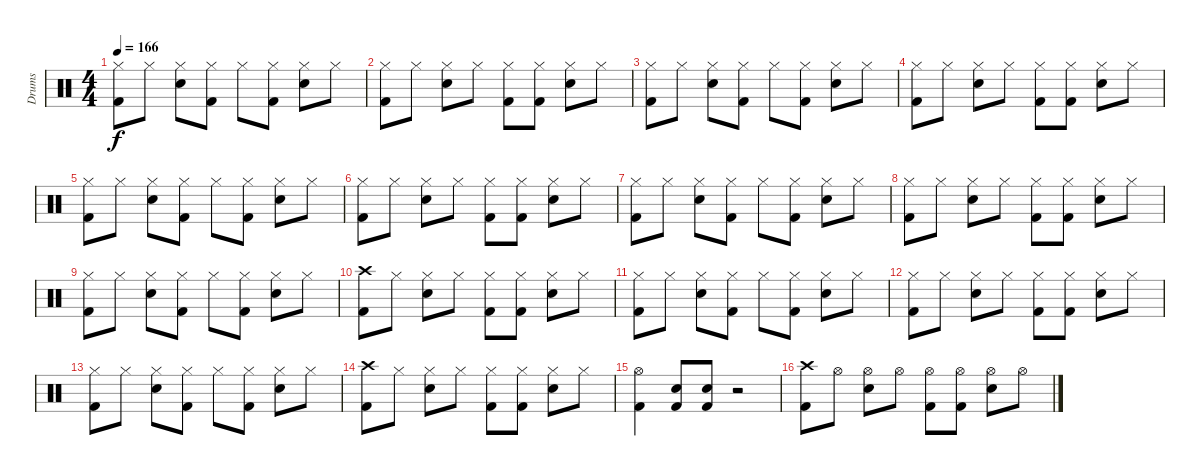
\track ("Drums" "Drums") {instrument percussion}
\staff {score}
\articulation defaults
\ts (4 4)
\tempo 166
\clef neutral
\ks c
("Hi-Hat (closed)" "Kick (hit) 2").8{dy f} "Hi-Hat (closed)".8 ("Hi-Hat (closed)" "Snare (hit) 2").8 ("Hi-Hat (closed)" "Kick (hit) 2").8 "Hi-Hat (closed)".8 ("Hi-Hat (closed)" "Kick (hit) 2").8 ("Hi-Hat (closed)" "Snare (hit) 2").8 "Hi-Hat (closed)".8 |
("Hi-Hat (closed)" "Kick (hit) 2").8 "Hi-Hat (closed)".8 ("Hi-Hat (closed)" "Snare (hit) 2").8 "Hi-Hat (closed)".8 ("Hi-Hat (closed)" "Kick (hit) 2").8 ("Hi-Hat (closed)" "Kick (hit) 2").8 ("Hi-Hat (closed)" "Snare (hit) 2").8 "Hi-Hat (closed)".8 |
("Hi-Hat (closed)" "Kick (hit) 2").8 "Hi-Hat (closed)".8 ("Hi-Hat (closed)" "Snare (hit) 2").8 ("Hi-Hat (closed)" "Kick (hit) 2").8 "Hi-Hat (closed)".8 ("Hi-Hat (closed)" "Kick (hit) 2").8 ("Hi-Hat (closed)" "Snare (hit) 2").8 "Hi-Hat (closed)".8 |
("Hi-Hat (closed)" "Kick (hit) 2").8 "Hi-Hat (closed)".8 ("Hi-Hat (closed)" "Snare (hit) 2").8 "Hi-Hat (closed)".8 ("Hi-Hat (closed)" "Kick (hit) 2").8 ("Hi-Hat (closed)" "Kick (hit) 2").8 ("Hi-Hat (closed)" "Snare (hit) 2").8 "Hi-Hat (closed)".8 |
("Hi-Hat (closed)" "Kick (hit) 2").8 "Hi-Hat (closed)".8 ("Hi-Hat (closed)" "Snare (hit) 2").8 ("Hi-Hat (closed)" "Kick (hit) 2").8 "Hi-Hat (closed)".8 ("Hi-Hat (closed)" "Kick (hit) 2").8 ("Hi-Hat (closed)" "Snare (hit) 2").8 "Hi-Hat (closed)".8 |
("Hi-Hat (closed)" "Kick (hit) 2").8 "Hi-Hat (closed)".8 ("Hi-Hat (closed)" "Snare (hit) 2").8 "Hi-Hat (closed)".8 ("Hi-Hat (closed)" "Kick (hit) 2").8 ("Hi-Hat (closed)" "Kick (hit) 2").8 ("Hi-Hat (closed)" "Snare (hit) 2").8 "Hi-Hat (closed)".8 |
("Hi-Hat (closed)" "Kick (hit) 2").8 "Hi-Hat (closed)".8 ("Hi-Hat (closed)" "Snare (hit) 2").8 ("Hi-Hat (closed)" "Kick (hit) 2").8 "Hi-Hat (closed)".8 ("Hi-Hat (closed)" "Kick (hit) 2").8 ("Hi-Hat (closed)" "Snare (hit) 2").8 "Hi-Hat (closed)".8 |
("Hi-Hat (closed)" "Kick (hit) 2").8 "Hi-Hat (closed)".8 ("Hi-Hat (closed)" "Snare (hit) 2").8 "Hi-Hat (closed)".8 ("Hi-Hat (closed)" "Kick (hit) 2").8 ("Hi-Hat (closed)" "Kick (hit) 2").8 ("Hi-Hat (closed)" "Snare (hit) 2").8 "Hi-Hat (closed)".8 |
("Hi-Hat (closed)" "Kick (hit) 2").8 "Hi-Hat (closed)".8 ("Hi-Hat (closed)" "Snare (hit) 2").8 ("Hi-Hat (closed)" "Kick (hit) 2").8 "Hi-Hat (closed)".8 ("Hi-Hat (closed)" "Kick (hit) 2").8 ("Hi-Hat (closed)" "Snare (hit) 2").8 "Hi-Hat (closed)".8 |
("Crash high (hit)" "Kick (hit) 2").8 "Hi-Hat (closed)".8 ("Hi-Hat (closed)" "Snare (hit) 2").8 "Hi-Hat (closed)".8 ("Hi-Hat (closed)" "Kick (hit) 2").8 ("Hi-Hat (closed)" "Kick (hit) 2").8 ("Hi-Hat (closed)" "Snare (hit) 2").8 "Hi-Hat (closed)".8 |
("Hi-Hat (closed)" "Kick (hit) 2").8 "Hi-Hat (closed)".8 ("Hi-Hat (closed)" "Snare (hit) 2").8 ("Hi-Hat (closed)" "Kick (hit) 2").8 "Hi-Hat (closed)".8 ("Hi-Hat (closed)" "Kick (hit) 2").8 ("Hi-Hat (closed)" "Snare (hit) 2").8 "Hi-Hat (closed)".8 |
("Hi-Hat (closed)" "Kick (hit) 2").8 "Hi-Hat (closed)".8 ("Hi-Hat (closed)" "Snare (hit) 2").8 "Hi-Hat (closed)".8 ("Hi-Hat (closed)" "Kick (hit) 2").8 ("Hi-Hat (closed)" "Kick (hit) 2").8 ("Hi-Hat (closed)" "Snare (hit) 2").8 "Hi-Hat (closed)".8 |
("Hi-Hat (closed)" "Kick (hit) 2").8 "Hi-Hat (closed)".8 ("Hi-Hat (closed)" "Snare (hit) 2").8 ("Hi-Hat (closed)" "Kick (hit) 2").8 "Hi-Hat (closed)".8 ("Hi-Hat (closed)" "Kick (hit) 2").8 ("Hi-Hat (closed)" "Snare (hit) 2").8 "Hi-Hat (closed)".8 |
("Crash high (hit)" "Kick (hit) 2").8 "Hi-Hat (closed)".8 ("Hi-Hat (closed)" "Snare (hit) 2").8 "Hi-Hat (closed)".8 ("Hi-Hat (closed)" "Kick (hit) 2").8 ("Hi-Hat (closed)" "Kick (hit) 2").8 ("Hi-Hat (closed)" "Snare (hit) 2").8 "Hi-Hat (closed)".8 |
("Hi-Hat (open)" "Kick (hit) 2").4 ("Snare (hit) 2" "Kick (hit) 2").8 ("Snare (hit) 2" "Kick (hit) 2").8 r.2 |
("Crash high (hit)" "Kick (hit) 2").8 "Hi-Hat (open)".8 ("Hi-Hat (open)" "Snare (hit) 2").8 "Hi-Hat (open)".8 ("Hi-Hat (open)" "Kick (hit) 2").8 ("Hi-Hat (open)" "Kick (hit) 2").8 ("Hi-Hat (open)" "Snare (hit) 2").8 "Hi-Hat (open)".8
